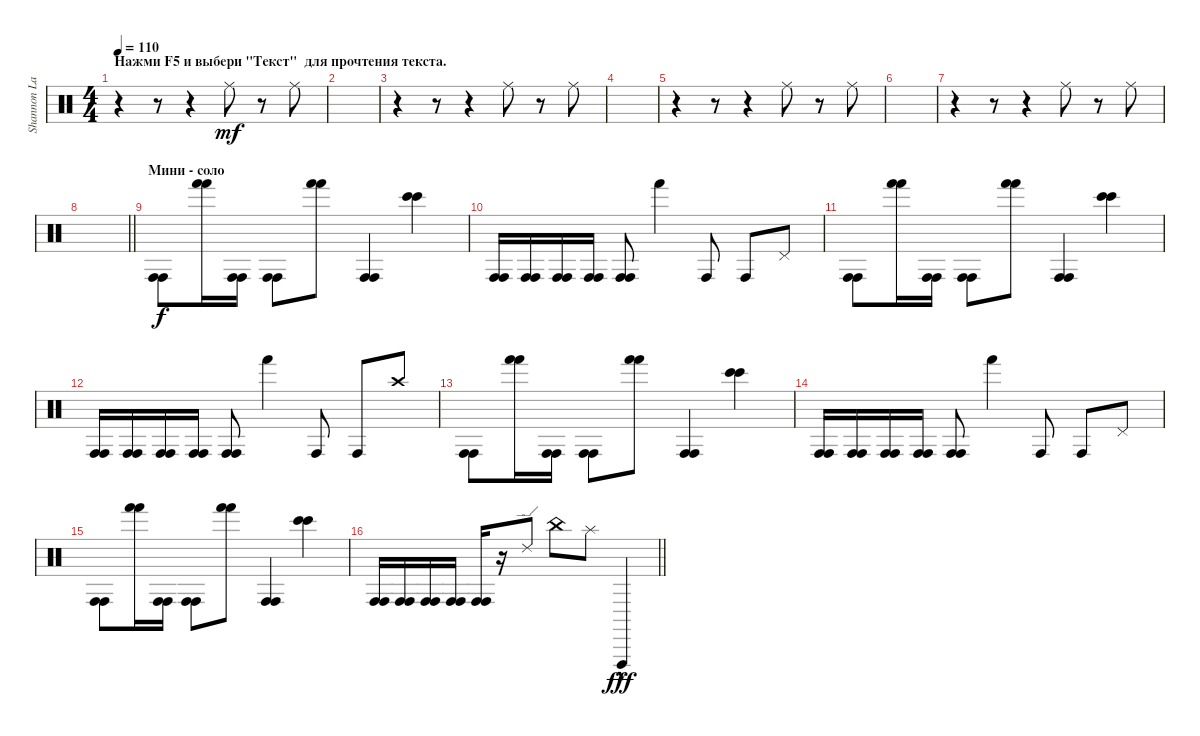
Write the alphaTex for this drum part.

\track ("Shannon Larkin [Percussion 1]" "Shannon La") {instrument percussion}
\staff {score}
\articulation defaults
\ts (4 4)
\section ("" "Нажми F5 и выбери \"Текст\"  для прочтения текста.")
\tempo 110
\clef neutral
\ks c
r.4{dy mf} r.8 r.4 "Ride (middle)".8 r.8 "Ride (middle)".8 |
|
r.4 r.8 r.4 "Ride (middle)".8 r.8 "Ride (middle)".8 |
|
r.4 r.8 r.4 "Ride (middle)".8 r.8 "Ride (middle)".8 |
|
r.4 r.8 r.4 "Ride (middle)".8 r.8 "Ride (middle)".8 |
\barLineRight lightlight
|
\section ("" "Мини - соло")
("Conga high (hit)" "Conga high (hit)").8{dy f} ("Hand (hit)" "Hand (hit)").16 ("Conga high (hit)" "Conga high (hit)").16 ("Conga high (hit)" "Conga high (hit)").8 ("Hand (hit)" "Hand (hit)").8 ("Conga high (hit)" "Conga high (hit)").4 ("Bongo High (hit)" "Bongo High (hit)").4 |
("Conga high (hit)" "Conga high (hit)").16 ("Conga high (hit)" "Conga high (hit)").16 ("Conga high (hit)" "Conga high (hit)").16 ("Conga high (hit)" "Conga high (hit)").16 ("Conga high (hit)" "Conga high (hit)").8 "Hand (hit)".4 "Conga high (hit)".8 "Conga high (hit)".8 "Pedal Hi-Hat (hit)".8 |
("Conga high (hit)" "Conga high (hit)").8 ("Hand (hit)" "Hand (hit)").16 ("Conga high (hit)" "Conga high (hit)").16 ("Conga high (hit)" "Conga high (hit)").8 ("Hand (hit)" "Hand (hit)").8 ("Conga high (hit)" "Conga high (hit)").4 ("Bongo High (hit)" "Bongo High (hit)").4 |
("Conga high (hit)" "Conga high (hit)").16 ("Conga high (hit)" "Conga high (hit)").16 ("Conga high (hit)" "Conga high (hit)").16 ("Conga high (hit)" "Conga high (hit)").16 ("Conga high (hit)" "Conga high (hit)").8 "Hand (hit)".4 "Conga high (hit)".8 "Conga high (hit)".8 "Crash high (hit)".8 |
("Conga high (hit)" "Conga high (hit)").8 ("Hand (hit)" "Hand (hit)").16 ("Conga high (hit)" "Conga high (hit)").16 ("Conga high (hit)" "Conga high (hit)").8 ("Hand (hit)" "Hand (hit)").8 ("Conga high (hit)" "Conga high (hit)").4 ("Bongo High (hit)" "Bongo High (hit)").4 |
("Conga high (hit)" "Conga high (hit)").16 ("Conga high (hit)" "Conga high (hit)").16 ("Conga high (hit)" "Conga high (hit)").16 ("Conga high (hit)" "Conga high (hit)").16 ("Conga high (hit)" "Conga high (hit)").8 "Hand (hit)".4 "Conga high (hit)".8 "Conga high (hit)".8 "Pedal Hi-Hat (hit)".8 |
("Conga high (hit)" "Conga high (hit)").8 ("Hand (hit)" "Hand (hit)").16 ("Conga high (hit)" "Conga high (hit)").16 ("Conga high (hit)" "Conga high (hit)").8 ("Hand (hit)" "Hand (hit)").8 ("Conga high (hit)" "Conga high (hit)").4 ("Bongo High (hit)" "Bongo High (hit)").4 |
\barLineRight lightlight
("Conga high (hit)" "Conga high (hit)").16 ("Conga high (hit)" "Conga high (hit)").16 ("Conga high (hit)" "Conga high (hit)").16 ("Conga high (hit)" "Conga high (hit)").16 ("Conga high (hit)" "Conga high (hit)").16 r.16 "Ride (edge) 2".8 "China (hit)".8 "Splash (hit)".8 "Vibraslap (hit)"{hac}.4{dy fff}
